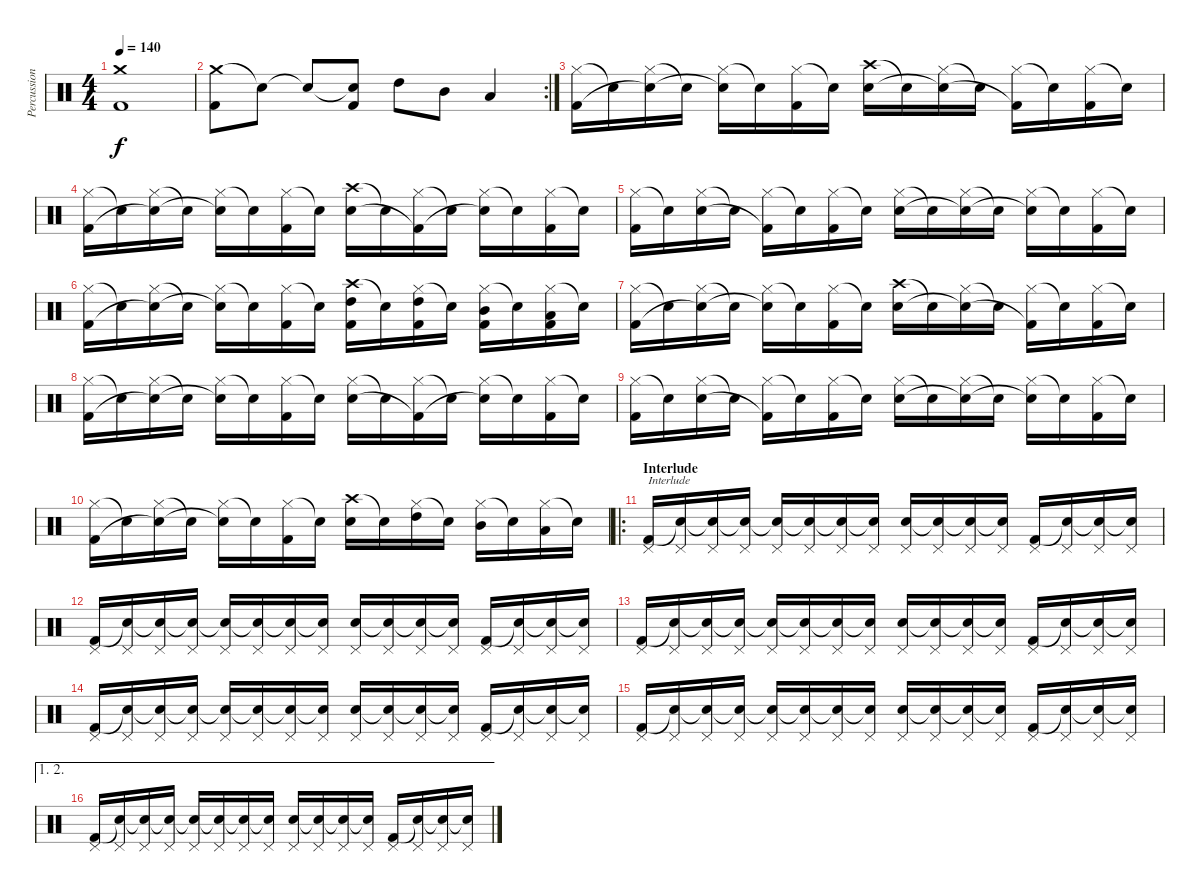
\track ("Percussion" "Percussion") {instrument percussion}
\staff {score}
\articulation defaults
\ts (4 4)
\tempo 140
\clef neutral
\ks c
("Crash medium (hit)" "Kick (hit) 2").1{dy f} |
\rc 2
("Crash medium (hit)" "Kick (hit) 2").8 "Snare (hit)"{t}.8 "Snare (hit)"{t}.8 ("Snare (hit)"{t} "Kick (hit) 2").8 "High Tom (hit)".8 "Mid Tom (hit)".8 "Low Tom (hit)".4 |
("Hi-Hat (closed)" "Kick (hit) 2").16 "Snare (hit)"{t}.16 ("Hi-Hat (closed)" "Snare (hit)"{t}).16 "Snare (hit)"{t}.16 ("Hi-Hat (closed)" "Snare (hit)"{t}).16 "Snare (hit)"{t}.16 ("Hi-Hat (closed)" "Kick (hit) 2").16 "Snare (hit)"{t}.16 ("Crash high (hit)" "Electric Snare (hit)").16 "Snare (hit)"{t}.16 ("Hi-Hat (closed)" "Snare (hit)"{t}).16 "Snare (hit)"{t}.16 ("Hi-Hat (closed)" "Kick (hit) 2"{t}).16 "Snare (hit)"{t}.16 ("Hi-Hat (closed)" "Kick (hit) 2").16 "Snare (hit)"{t}.16 |
("Hi-Hat (closed)" "Kick (hit) 2").16 "Snare (hit)"{t}.16 ("Hi-Hat (closed)" "Snare (hit)"{t}).16 "Snare (hit)"{t}.16 ("Hi-Hat (closed)" "Snare (hit)"{t}).16 "Snare (hit)"{t}.16 ("Hi-Hat (closed)" "Kick (hit) 2").16 "Snare (hit)"{t}.16 ("Crash high (hit)" "Electric Snare (hit)").16 "Snare (hit)"{t}.16 ("Hi-Hat (closed)" "Kick (hit) 2"{t}).16 "Snare (hit)"{t}.16 ("Hi-Hat (closed)" "Snare (hit)"{t}).16 "Snare (hit)"{t}.16 ("Hi-Hat (closed)" "Kick (hit) 2").16 "Snare (hit)"{t}.16 |
("Hi-Hat (closed)" "Kick (hit) 2").16 "Snare (hit)"{t}.16 ("Hi-Hat (closed)" "Electric Snare (hit)").16 "Snare (hit)"{t}.16 ("Hi-Hat (closed)" "Kick (hit) 2"{t}).16 "Snare (hit)"{t}.16 ("Hi-Hat (closed)" "Kick (hit) 2").16 "Snare (hit)"{t}.16 ("Hi-Hat (closed)" "Electric Snare (hit)").16 "Snare (hit)"{t}.16 ("Hi-Hat (closed)" "Snare (hit)"{t}).16 "Snare (hit)"{t}.16 ("Hi-Hat (closed)" "Snare (hit)"{t}).16 "Snare (hit)"{t}.16 ("Hi-Hat (closed)" "Kick (hit) 2").16 "Snare (hit)"{t}.16 |
("Hi-Hat (closed)" "Kick (hit) 2").16 "Snare (hit)"{t}.16 ("Hi-Hat (closed)" "Snare (hit)"{t}).16 "Snare (hit)"{t}.16 ("Hi-Hat (closed)" "Snare (hit)"{t}).16 "Snare (hit)"{t}.16 ("Hi-Hat (closed)" "Kick (hit) 2").16 "Snare (hit)"{t}.16 ("Crash high (hit)" "High Tom (hit)" "Kick (hit) 2").16 "Snare (hit)"{t}.16 ("Hi-Hat (closed)" "High Tom (hit)" "Kick (hit) 2").16 "Snare (hit)"{t}.16 ("Hi-Hat (closed)" "Mid Tom (hit)" "Kick (hit) 2").16 "Snare (hit)"{t}.16 ("Hi-Hat (closed)" "Low Tom (hit)" "Kick (hit) 2").16 "Snare (hit)"{t}.16 |
("Hi-Hat (closed)" "Kick (hit) 2").16 "Snare (hit)"{t}.16 ("Hi-Hat (closed)" "Snare (hit)"{t}).16 "Snare (hit)"{t}.16 ("Hi-Hat (closed)" "Snare (hit)"{t}).16 "Snare (hit)"{t}.16 ("Hi-Hat (closed)" "Kick (hit) 2").16 "Snare (hit)"{t}.16 ("Crash high (hit)" "Electric Snare (hit)").16 "Snare (hit)"{t}.16 ("Hi-Hat (closed)" "Snare (hit)"{t}).16 "Snare (hit)"{t}.16 ("Hi-Hat (closed)" "Kick (hit) 2"{t}).16 "Snare (hit)"{t}.16 ("Hi-Hat (closed)" "Kick (hit) 2").16 "Snare (hit)"{t}.16 |
("Hi-Hat (closed)" "Kick (hit) 2").16 "Snare (hit)"{t}.16 ("Hi-Hat (closed)" "Snare (hit)"{t}).16 "Snare (hit)"{t}.16 ("Hi-Hat (closed)" "Snare (hit)"{t}).16 "Snare (hit)"{t}.16 ("Hi-Hat (closed)" "Kick (hit) 2").16 "Snare (hit)"{t}.16 ("Hi-Hat (closed)" "Electric Snare (hit)").16 "Snare (hit)"{t}.16 ("Hi-Hat (closed)" "Kick (hit) 2"{t}).16 "Snare (hit)"{t}.16 ("Hi-Hat (closed)" "Snare (hit)"{t}).16 "Snare (hit)"{t}.16 ("Hi-Hat (closed)" "Kick (hit) 2").16 "Snare (hit)"{t}.16 |
("Hi-Hat (closed)" "Kick (hit) 2").16 "Snare (hit)"{t}.16 ("Hi-Hat (closed)" "Electric Snare (hit)").16 "Snare (hit)"{t}.16 ("Hi-Hat (closed)" "Kick (hit) 2"{t}).16 "Snare (hit)"{t}.16 ("Hi-Hat (closed)" "Kick (hit) 2").16 "Snare (hit)"{t}.16 ("Hi-Hat (closed)" "Electric Snare (hit)").16 "Snare (hit)"{t}.16 ("Hi-Hat (closed)" "Snare (hit)"{t}).16 "Snare (hit)"{t}.16 ("Hi-Hat (closed)" "Snare (hit)"{t}).16 "Snare (hit)"{t}.16 ("Hi-Hat (closed)" "Kick (hit) 2").16 "Snare (hit)"{t}.16 |
("Hi-Hat (closed)" "Kick (hit) 2").16 "Snare (hit)"{t}.16 ("Hi-Hat (closed)" "Snare (hit)"{t}).16 "Snare (hit)"{t}.16 ("Hi-Hat (closed)" "Snare (hit)"{t}).16 "Snare (hit)"{t}.16 ("Hi-Hat (closed)" "Kick (hit) 2").16 "Snare (hit)"{t}.16 ("Crash high (hit)" "Electric Snare (hit)").16 "Snare (hit)"{t}.16 ("Hi-Hat (closed)" "High Tom (hit)").16 "Snare (hit)"{t}.16 ("Hi-Hat (closed)" "Mid Tom (hit)").16 "Snare (hit)"{t}.16 ("Hi-Hat (closed)" "Low Tom (hit)").16 "Snare (hit)"{t}.16 |
\ro
\section ("" "Interlude")
("Pedal Hi-Hat (hit)" "Kick (hit) 2").16{txt "Interlude"} ("Pedal Hi-Hat (hit)" "Snare (hit)"{t}).16 ("Pedal Hi-Hat (hit)" "Snare (hit)"{t}).16 ("Pedal Hi-Hat (hit)" "Snare (hit)"{t}).16 ("Pedal Hi-Hat (hit)" "Snare (hit)"{t}).16 ("Pedal Hi-Hat (hit)" "Snare (hit)"{t}).16 ("Pedal Hi-Hat (hit)" "Snare (hit)"{t}).16 ("Pedal Hi-Hat (hit)" "Snare (hit)"{t}).16 ("Pedal Hi-Hat (hit)" "Electric Snare (hit)").16 ("Pedal Hi-Hat (hit)" "Snare (hit)"{t}).16 ("Pedal Hi-Hat (hit)" "Snare (hit)"{t}).16 ("Pedal Hi-Hat (hit)" "Snare (hit)"{t}).16 ("Pedal Hi-Hat (hit)" "Kick (hit) 2").16 ("Pedal Hi-Hat (hit)" "Snare (hit)"{t}).16 ("Pedal Hi-Hat (hit)" "Snare (hit)"{t}).16 ("Pedal Hi-Hat (hit)" "Snare (hit)"{t}).16 |
("Pedal Hi-Hat (hit)" "Kick (hit) 2").16 ("Pedal Hi-Hat (hit)" "Snare (hit)"{t}).16 ("Pedal Hi-Hat (hit)" "Snare (hit)"{t}).16 ("Pedal Hi-Hat (hit)" "Snare (hit)"{t}).16 ("Pedal Hi-Hat (hit)" "Snare (hit)"{t}).16 ("Pedal Hi-Hat (hit)" "Snare (hit)"{t}).16 ("Pedal Hi-Hat (hit)" "Snare (hit)"{t}).16 ("Pedal Hi-Hat (hit)" "Snare (hit)"{t}).16 ("Pedal Hi-Hat (hit)" "Electric Snare (hit)").16 ("Pedal Hi-Hat (hit)" "Snare (hit)"{t}).16 ("Pedal Hi-Hat (hit)" "Snare (hit)"{t}).16 ("Pedal Hi-Hat (hit)" "Snare (hit)"{t}).16 ("Pedal Hi-Hat (hit)" "Kick (hit) 2").16 ("Pedal Hi-Hat (hit)" "Snare (hit)"{t}).16 ("Pedal Hi-Hat (hit)" "Snare (hit)"{t}).16 ("Pedal Hi-Hat (hit)" "Snare (hit)"{t}).16 |
("Pedal Hi-Hat (hit)" "Kick (hit) 2").16 ("Pedal Hi-Hat (hit)" "Snare (hit)"{t}).16 ("Pedal Hi-Hat (hit)" "Snare (hit)"{t}).16 ("Pedal Hi-Hat (hit)" "Snare (hit)"{t}).16 ("Pedal Hi-Hat (hit)" "Snare (hit)"{t}).16 ("Pedal Hi-Hat (hit)" "Snare (hit)"{t}).16 ("Pedal Hi-Hat (hit)" "Snare (hit)"{t}).16 ("Pedal Hi-Hat (hit)" "Snare (hit)"{t}).16 ("Pedal Hi-Hat (hit)" "Electric Snare (hit)").16 ("Pedal Hi-Hat (hit)" "Snare (hit)"{t}).16 ("Pedal Hi-Hat (hit)" "Snare (hit)"{t}).16 ("Pedal Hi-Hat (hit)" "Snare (hit)"{t}).16 ("Pedal Hi-Hat (hit)" "Kick (hit) 2").16 ("Pedal Hi-Hat (hit)" "Snare (hit)"{t}).16 ("Pedal Hi-Hat (hit)" "Snare (hit)"{t}).16 ("Pedal Hi-Hat (hit)" "Snare (hit)"{t}).16 |
("Pedal Hi-Hat (hit)" "Kick (hit) 2").16 ("Pedal Hi-Hat (hit)" "Snare (hit)"{t}).16 ("Pedal Hi-Hat (hit)" "Snare (hit)"{t}).16 ("Pedal Hi-Hat (hit)" "Snare (hit)"{t}).16 ("Pedal Hi-Hat (hit)" "Snare (hit)"{t}).16 ("Pedal Hi-Hat (hit)" "Snare (hit)"{t}).16 ("Pedal Hi-Hat (hit)" "Snare (hit)"{t}).16 ("Pedal Hi-Hat (hit)" "Snare (hit)"{t}).16 ("Pedal Hi-Hat (hit)" "Electric Snare (hit)").16 ("Pedal Hi-Hat (hit)" "Snare (hit)"{t}).16 ("Pedal Hi-Hat (hit)" "Snare (hit)"{t}).16 ("Pedal Hi-Hat (hit)" "Snare (hit)"{t}).16 ("Pedal Hi-Hat (hit)" "Kick (hit) 2").16 ("Pedal Hi-Hat (hit)" "Snare (hit)"{t}).16 ("Pedal Hi-Hat (hit)" "Snare (hit)"{t}).16 ("Pedal Hi-Hat (hit)" "Snare (hit)"{t}).16 |
("Pedal Hi-Hat (hit)" "Kick (hit) 2").16 ("Pedal Hi-Hat (hit)" "Snare (hit)"{t}).16 ("Pedal Hi-Hat (hit)" "Snare (hit)"{t}).16 ("Pedal Hi-Hat (hit)" "Snare (hit)"{t}).16 ("Pedal Hi-Hat (hit)" "Snare (hit)"{t}).16 ("Pedal Hi-Hat (hit)" "Snare (hit)"{t}).16 ("Pedal Hi-Hat (hit)" "Snare (hit)"{t}).16 ("Pedal Hi-Hat (hit)" "Snare (hit)"{t}).16 ("Pedal Hi-Hat (hit)" "Electric Snare (hit)").16 ("Pedal Hi-Hat (hit)" "Snare (hit)"{t}).16 ("Pedal Hi-Hat (hit)" "Snare (hit)"{t}).16 ("Pedal Hi-Hat (hit)" "Snare (hit)"{t}).16 ("Pedal Hi-Hat (hit)" "Kick (hit) 2").16 ("Pedal Hi-Hat (hit)" "Snare (hit)"{t}).16 ("Pedal Hi-Hat (hit)" "Snare (hit)"{t}).16 ("Pedal Hi-Hat (hit)" "Snare (hit)"{t}).16 |
\ae (1 2)
("Pedal Hi-Hat (hit)" "Kick (hit) 2").16 ("Pedal Hi-Hat (hit)" "Snare (hit)"{t}).16 ("Pedal Hi-Hat (hit)" "Snare (hit)"{t}).16 ("Pedal Hi-Hat (hit)" "Snare (hit)"{t}).16 ("Pedal Hi-Hat (hit)" "Snare (hit)"{t}).16 ("Pedal Hi-Hat (hit)" "Snare (hit)"{t}).16 ("Pedal Hi-Hat (hit)" "Snare (hit)"{t}).16 ("Pedal Hi-Hat (hit)" "Snare (hit)"{t}).16 ("Pedal Hi-Hat (hit)" "Electric Snare (hit)").16 ("Pedal Hi-Hat (hit)" "Snare (hit)"{t}).16 ("Pedal Hi-Hat (hit)" "Snare (hit)"{t}).16 ("Pedal Hi-Hat (hit)" "Snare (hit)"{t}).16 ("Pedal Hi-Hat (hit)" "Kick (hit) 2").16 ("Pedal Hi-Hat (hit)" "Snare (hit)"{t}).16 ("Pedal Hi-Hat (hit)" "Snare (hit)"{t}).16 ("Pedal Hi-Hat (hit)" "Snare (hit)"{t}).16
